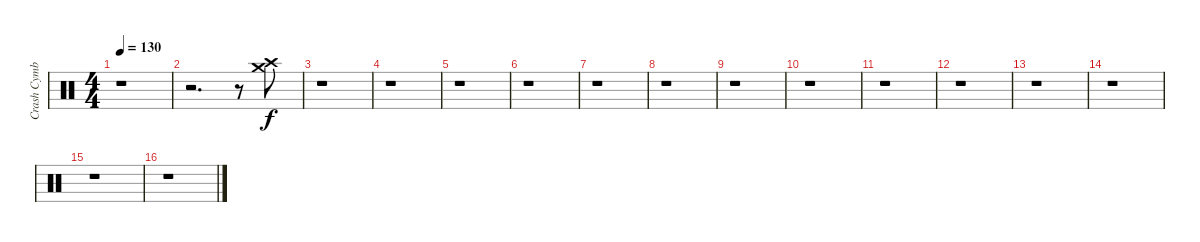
\track ("Crash Cymbal" "Crash Cymb") {instrument percussion}
\staff {score}
\articulation defaults
\ts (4 4)
\tempo 130
\clef neutral
\ks c
r.1{dy f} |
r.2{d} r.8 ("Crash high (hit)" "Crash medium (hit)").8 |
r.1 |
r.1 |
r.1 |
r.1 |
r.1 |
r.1 |
r.1 |
r.1 |
r.1 |
r.1 |
r.1 |
r.1 |
r.1 |
r.1
